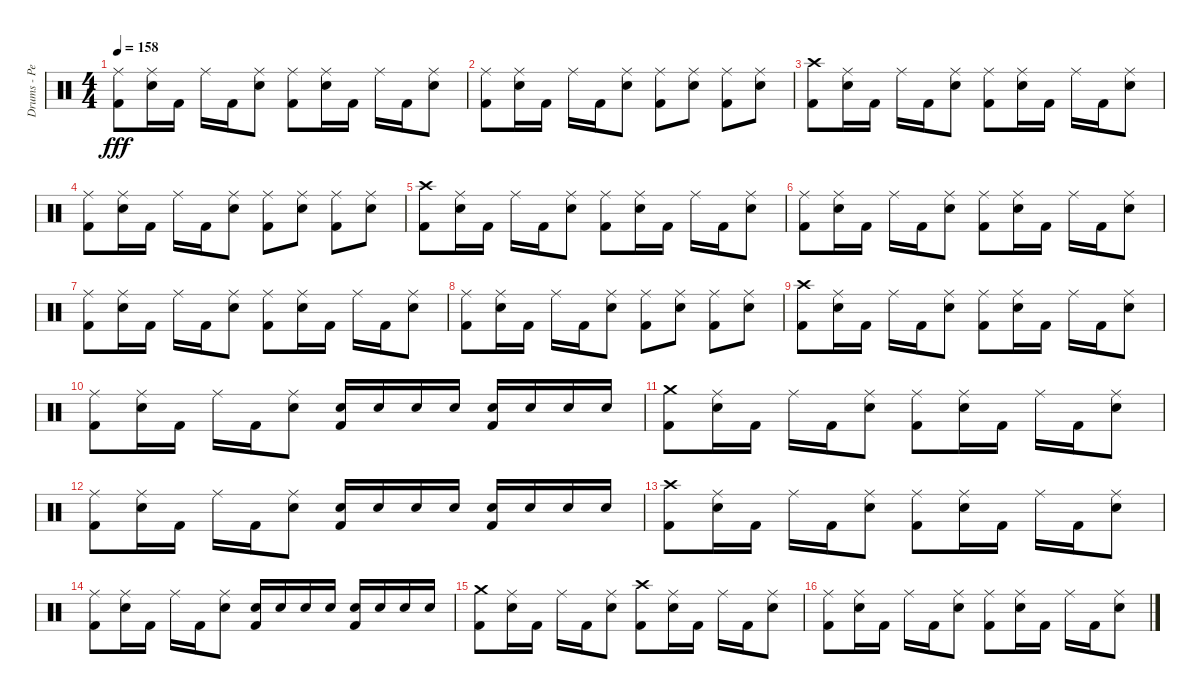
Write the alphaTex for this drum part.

\track ("Drums - Pete Finestone" "Drums - Pe") {instrument percussion}
\staff {score}
\articulation defaults
\ts (4 4)
\tempo 158
\clef neutral
\ks c
("Kick (hit) 2" "Ride (middle)").8{dy fff} ("Electric Snare (hit)" "Ride (middle)").16 "Kick (hit) 2".16 "Ride (middle)".16 "Kick (hit) 2".16 ("Electric Snare (hit)" "Ride (middle)").8 ("Kick (hit) 2" "Ride (middle)").8 ("Electric Snare (hit)" "Ride (middle)").16 "Kick (hit) 2".16 "Ride (middle)".16 "Kick (hit) 2".16 ("Electric Snare (hit)" "Ride (middle)").8 |
("Kick (hit) 2" "Ride (middle)").8 ("Electric Snare (hit)" "Ride (middle)").16 "Kick (hit) 2".16 "Ride (middle)".16 "Kick (hit) 2".16 ("Electric Snare (hit)" "Ride (middle)").8 ("Kick (hit) 2" "Ride (middle)").8 ("Electric Snare (hit)" "Ride (middle)").8 ("Ride (middle)" "Kick (hit) 2").8 ("Electric Snare (hit)" "Ride (middle)").8 |
("Kick (hit) 2" "Crash high (hit)").8 ("Ride (middle)" "Electric Snare (hit)").16 "Kick (hit) 2".16 "Ride (middle)".16 "Kick (hit) 2".16 ("Electric Snare (hit)" "Ride (middle)").8 ("Kick (hit) 2" "Ride (middle)").8 ("Electric Snare (hit)" "Ride (middle)").16 "Kick (hit) 2".16 "Ride (middle)".16 "Kick (hit) 2".16 ("Electric Snare (hit)" "Ride (middle)").8 |
("Kick (hit) 2" "Ride (middle)").8 ("Electric Snare (hit)" "Ride (middle)").16 "Kick (hit) 2".16 "Ride (middle)".16 "Kick (hit) 2".16 ("Electric Snare (hit)" "Ride (middle)").8 ("Kick (hit) 2" "Ride (middle)").8 ("Electric Snare (hit)" "Ride (middle)").8 ("Ride (middle)" "Kick (hit) 2").8 ("Electric Snare (hit)" "Ride (middle)").8 |
("Kick (hit) 2" "Crash high (hit)").8 ("Ride (middle)" "Electric Snare (hit)").16 "Kick (hit) 2".16 "Ride (middle)".16 "Kick (hit) 2".16 ("Electric Snare (hit)" "Ride (middle)").8 ("Kick (hit) 2" "Ride (middle)").8 ("Electric Snare (hit)" "Ride (middle)").16 "Kick (hit) 2".16 "Ride (middle)".16 "Kick (hit) 2".16 ("Electric Snare (hit)" "Ride (middle)").8 |
("Kick (hit) 2" "Ride (middle)").8 ("Electric Snare (hit)" "Ride (middle)").16 "Kick (hit) 2".16 "Ride (middle)".16 "Kick (hit) 2".16 ("Electric Snare (hit)" "Ride (middle)").8 ("Kick (hit) 2" "Ride (middle)").8 ("Electric Snare (hit)" "Ride (middle)").16 "Kick (hit) 2".16 "Ride (middle)".16 "Kick (hit) 2".16 ("Electric Snare (hit)" "Ride (middle)").8 |
("Kick (hit) 2" "Ride (middle)").8 ("Electric Snare (hit)" "Ride (middle)").16 "Kick (hit) 2".16 "Ride (middle)".16 "Kick (hit) 2".16 ("Electric Snare (hit)" "Ride (middle)").8 ("Kick (hit) 2" "Ride (middle)").8 ("Electric Snare (hit)" "Ride (middle)").16 "Kick (hit) 2".16 "Ride (middle)".16 "Kick (hit) 2".16 ("Electric Snare (hit)" "Ride (middle)").8 |
("Kick (hit) 2" "Ride (middle)").8 ("Electric Snare (hit)" "Ride (middle)").16 "Kick (hit) 2".16 "Ride (middle)".16 "Kick (hit) 2".16 ("Electric Snare (hit)" "Ride (middle)").8 ("Kick (hit) 2" "Ride (middle)").8 ("Electric Snare (hit)" "Ride (middle)").8 ("Ride (middle)" "Kick (hit) 2").8 ("Electric Snare (hit)" "Ride (middle)").8 |
("Kick (hit) 2" "Crash high (hit)").8 ("Ride (middle)" "Electric Snare (hit)").16 "Kick (hit) 2".16 "Ride (middle)".16 "Kick (hit) 2".16 ("Electric Snare (hit)" "Ride (middle)").8 ("Kick (hit) 2" "Ride (middle)").8 ("Electric Snare (hit)" "Ride (middle)").16 "Kick (hit) 2".16 "Ride (middle)".16 "Kick (hit) 2".16 ("Electric Snare (hit)" "Ride (middle)").8 |
("Kick (hit) 2" "Ride (middle)").8 ("Electric Snare (hit)" "Ride (middle)").16 "Kick (hit) 2".16 "Ride (middle)".16 "Kick (hit) 2".16 ("Electric Snare (hit)" "Ride (middle)").8 ("Kick (hit) 2" "Electric Snare (hit)").16 "Electric Snare (hit)".16 "Electric Snare (hit)".16 "Electric Snare (hit)".16 ("Kick (hit) 2" "Electric Snare (hit)").16 "Electric Snare (hit)".16 "Electric Snare (hit)".16 "Electric Snare (hit)".16 |
("Kick (hit) 2" "Crash medium (hit)").8 ("Electric Snare (hit)" "Ride (middle)").16 "Kick (hit) 2".16 "Ride (middle)".16 "Kick (hit) 2".16 ("Electric Snare (hit)" "Ride (middle)").8 ("Kick (hit) 2" "Ride (middle)").8 ("Electric Snare (hit)" "Ride (middle)").16 "Kick (hit) 2".16 "Ride (middle)".16 "Kick (hit) 2".16 ("Electric Snare (hit)" "Ride (middle)").8 |
("Kick (hit) 2" "Ride (middle)").8 ("Electric Snare (hit)" "Ride (middle)").16 "Kick (hit) 2".16 "Ride (middle)".16 "Kick (hit) 2".16 ("Electric Snare (hit)" "Ride (middle)").8 ("Kick (hit) 2" "Electric Snare (hit)").16 "Electric Snare (hit)".16 "Electric Snare (hit)".16 "Electric Snare (hit)".16 ("Kick (hit) 2" "Electric Snare (hit)").16 "Electric Snare (hit)".16 "Electric Snare (hit)".16 "Electric Snare (hit)".16 |
("Kick (hit) 2" "Crash high (hit)").8 ("Electric Snare (hit)" "Ride (middle)").16 "Kick (hit) 2".16 "Ride (middle)".16 "Kick (hit) 2".16 ("Electric Snare (hit)" "Ride (middle)").8 ("Kick (hit) 2" "Ride (middle)").8 ("Electric Snare (hit)" "Ride (middle)").16 "Kick (hit) 2".16 "Ride (middle)".16 "Kick (hit) 2".16 ("Electric Snare (hit)" "Ride (middle)").8 |
("Kick (hit) 2" "Ride (middle)").8 ("Electric Snare (hit)" "Ride (middle)").16 "Kick (hit) 2".16 "Ride (middle)".16 "Kick (hit) 2".16 ("Electric Snare (hit)" "Ride (middle)").8 ("Kick (hit) 2" "Electric Snare (hit)").16 "Electric Snare (hit)".16 "Electric Snare (hit)".16 "Electric Snare (hit)".16 ("Kick (hit) 2" "Electric Snare (hit)").16 "Electric Snare (hit)".16 "Electric Snare (hit)".16 "Electric Snare (hit)".16 |
("Kick (hit) 2" "Crash medium (hit)").8 ("Electric Snare (hit)" "Ride (middle)").16 "Kick (hit) 2".16 "Ride (middle)".16 "Kick (hit) 2".16 ("Electric Snare (hit)" "Ride (middle)").8 ("Kick (hit) 2" "Crash high (hit)").8 ("Electric Snare (hit)" "Ride (middle)").16 "Kick (hit) 2".16 "Ride (middle)".16 "Kick (hit) 2".16 ("Electric Snare (hit)" "Ride (middle)").8 |
("Kick (hit) 2" "Ride (middle)").8 ("Electric Snare (hit)" "Ride (middle)").16 "Kick (hit) 2".16 "Ride (middle)".16 "Kick (hit) 2".16 ("Electric Snare (hit)" "Ride (middle)").8 ("Kick (hit) 2" "Ride (middle)").8 ("Electric Snare (hit)" "Ride (middle)").16 "Kick (hit) 2".16 "Ride (middle)".16 "Kick (hit) 2".16 ("Electric Snare (hit)" "Ride (middle)").8
